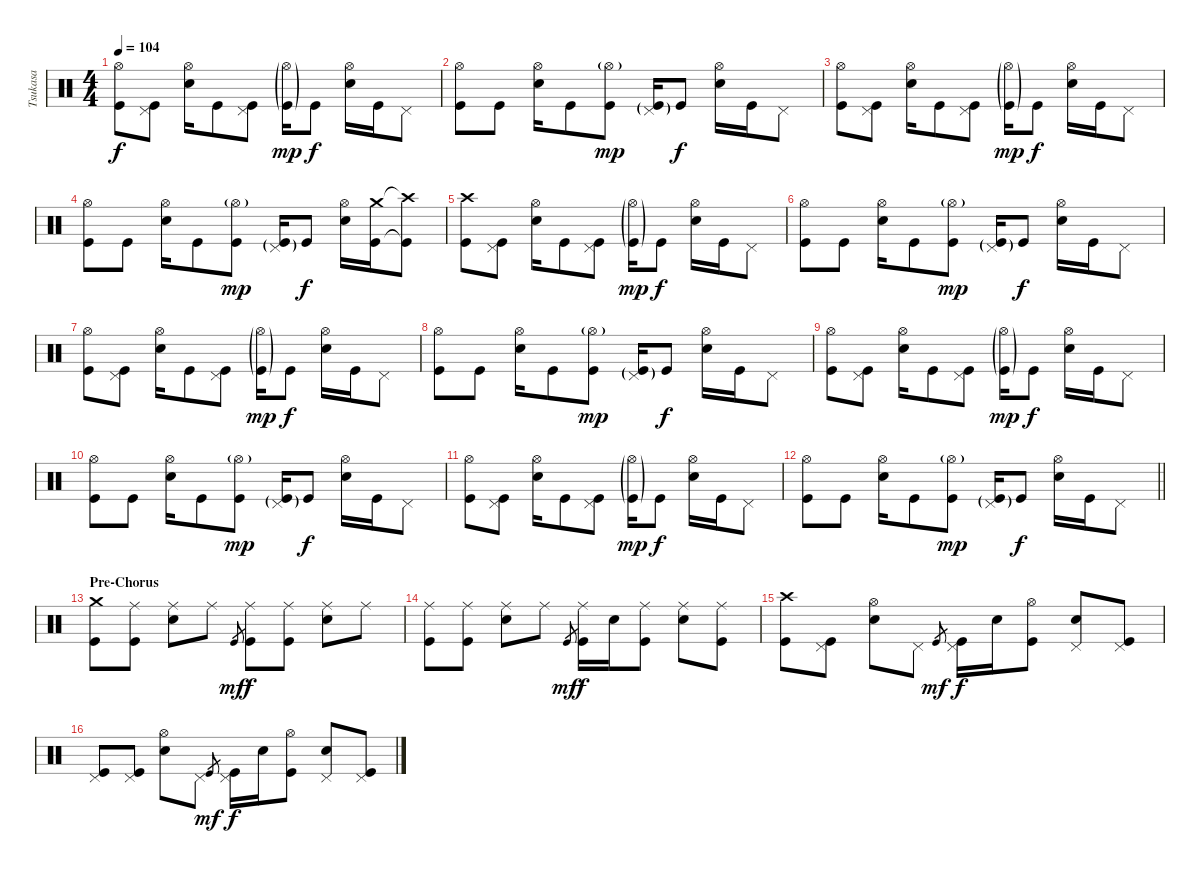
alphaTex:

\track ("Tsukasa" "Tsukasa") {instrument percussion}
\staff {score}
\articulation defaults
\ts (4 4)
\tempo 104
\clef neutral
\ks c
("Hi-Hat (open)" "Kick (hit)").8{dy f} ("Pedal Hi-Hat (hit)" "Kick (hit)").8 ("Hi-Hat (open)" "Snare (hit) 2").16 "Kick (hit)".8 ("Pedal Hi-Hat (hit)" "Kick (hit)").8 ("Hi-Hat (open)"{g} "Kick (hit)"{g}).16{dy mp} "Kick (hit)".8{dy f} ("Hi-Hat (open)" "Snare (hit) 2").16 "Kick (hit)".16 "Pedal Hi-Hat (hit)".8 |
("Hi-Hat (open)" "Kick (hit)").8 "Kick (hit)".8 ("Hi-Hat (open)" "Snare (hit) 2").16 "Kick (hit)".8 ("Hi-Hat (open)"{g} "Kick (hit)").8{dy mp} ("Pedal Hi-Hat (hit)"{g} "Kick (hit)"{g}).16 "Kick (hit)".8{dy f} ("Hi-Hat (open)" "Snare (hit) 2").16 "Kick (hit)".16 "Pedal Hi-Hat (hit)".8 |
("Hi-Hat (open)" "Kick (hit)").8 ("Pedal Hi-Hat (hit)" "Kick (hit)").8 ("Hi-Hat (open)" "Snare (hit) 2").16 "Kick (hit)".8 ("Pedal Hi-Hat (hit)" "Kick (hit)").8 ("Hi-Hat (open)"{g} "Kick (hit)"{g}).16{dy mp} "Kick (hit)".8{dy f} ("Hi-Hat (open)" "Snare (hit) 2").16 "Kick (hit)".16 "Pedal Hi-Hat (hit)".8 |
("Hi-Hat (open)" "Kick (hit)").8 "Kick (hit)".8 ("Hi-Hat (open)" "Snare (hit) 2").16 "Kick (hit)".8 ("Hi-Hat (open)"{g} "Kick (hit)").8{dy mp} ("Pedal Hi-Hat (hit)"{g} "Kick (hit)"{g}).16 "Kick (hit)".8{dy f} ("Hi-Hat (open)" "Snare (hit) 2").16 ("Crash medium (hit)" "Kick (hit)").16 ("Crash high (hit)"{t} "Kick (hit)"{t}).8 |
("Crash high (hit)" "Kick (hit)").8 ("Pedal Hi-Hat (hit)" "Kick (hit)").8 ("Hi-Hat (open)" "Snare (hit) 2").16 "Kick (hit)".8 ("Pedal Hi-Hat (hit)" "Kick (hit)").8 ("Hi-Hat (open)"{g} "Kick (hit)"{g}).16{dy mp} "Kick (hit)".8{dy f} ("Hi-Hat (open)" "Snare (hit) 2").16 "Kick (hit)".16 "Pedal Hi-Hat (hit)".8 |
("Hi-Hat (open)" "Kick (hit)").8 "Kick (hit)".8 ("Hi-Hat (open)" "Snare (hit) 2").16 "Kick (hit)".8 ("Hi-Hat (open)"{g} "Kick (hit)").8{dy mp} ("Pedal Hi-Hat (hit)"{g} "Kick (hit)"{g}).16 "Kick (hit)".8{dy f} ("Hi-Hat (open)" "Snare (hit) 2").16 "Kick (hit)".16 "Pedal Hi-Hat (hit)".8 |
("Hi-Hat (open)" "Kick (hit)").8 ("Pedal Hi-Hat (hit)" "Kick (hit)").8 ("Hi-Hat (open)" "Snare (hit) 2").16 "Kick (hit)".8 ("Pedal Hi-Hat (hit)" "Kick (hit)").8 ("Hi-Hat (open)"{g} "Kick (hit)"{g}).16{dy mp} "Kick (hit)".8{dy f} ("Hi-Hat (open)" "Snare (hit) 2").16 "Kick (hit)".16 "Pedal Hi-Hat (hit)".8 |
("Hi-Hat (open)" "Kick (hit)").8 "Kick (hit)".8 ("Hi-Hat (open)" "Snare (hit) 2").16 "Kick (hit)".8 ("Hi-Hat (open)"{g} "Kick (hit)").8{dy mp} ("Pedal Hi-Hat (hit)"{g} "Kick (hit)"{g}).16 "Kick (hit)".8{dy f} ("Hi-Hat (open)" "Snare (hit) 2").16 "Kick (hit)".16 "Pedal Hi-Hat (hit)".8 |
("Hi-Hat (open)" "Kick (hit)").8 ("Pedal Hi-Hat (hit)" "Kick (hit)").8 ("Hi-Hat (open)" "Snare (hit) 2").16 "Kick (hit)".8 ("Pedal Hi-Hat (hit)" "Kick (hit)").8 ("Hi-Hat (open)"{g} "Kick (hit)"{g}).16{dy mp} "Kick (hit)".8{dy f} ("Hi-Hat (open)" "Snare (hit) 2").16 "Kick (hit)".16 "Pedal Hi-Hat (hit)".8 |
("Hi-Hat (open)" "Kick (hit)").8 "Kick (hit)".8 ("Hi-Hat (open)" "Snare (hit) 2").16 "Kick (hit)".8 ("Hi-Hat (open)"{g} "Kick (hit)").8{dy mp} ("Pedal Hi-Hat (hit)"{g} "Kick (hit)"{g}).16 "Kick (hit)".8{dy f} ("Hi-Hat (open)" "Snare (hit) 2").16 "Kick (hit)".16 "Pedal Hi-Hat (hit)".8 |
("Hi-Hat (open)" "Kick (hit)").8 ("Pedal Hi-Hat (hit)" "Kick (hit)").8 ("Hi-Hat (open)" "Snare (hit) 2").16 "Kick (hit)".8 ("Pedal Hi-Hat (hit)" "Kick (hit)").8 ("Hi-Hat (open)"{g} "Kick (hit)"{g}).16{dy mp} "Kick (hit)".8{dy f} ("Hi-Hat (open)" "Snare (hit) 2").16 "Kick (hit)".16 "Pedal Hi-Hat (hit)".8 |
\barLineRight lightlight
("Hi-Hat (open)" "Kick (hit)").8 "Kick (hit)".8 ("Hi-Hat (open)" "Snare (hit) 2").16 "Kick (hit)".8 ("Hi-Hat (open)"{g} "Kick (hit)").8{dy mp} ("Pedal Hi-Hat (hit)"{g} "Kick (hit)"{g}).16 "Kick (hit)".8{dy f} ("Hi-Hat (open)" "Snare (hit) 2").16 "Kick (hit)".16 "Pedal Hi-Hat (hit)".8 |
\section ("" "Pre-Chorus")
("Crash medium (hit)" "Kick (hit)").8 ("Ride (middle)" "Kick (hit)").8 ("Ride (middle)" "Snare (hit) 2").8 "Ride (middle)".8 "Kick (hit)".8{gr dy mf} ("Ride (middle)" "Kick (hit)").8{dy f} ("Ride (middle)" "Kick (hit)").8 ("Ride (middle)" "Snare (hit) 2").8 "Ride (middle)".8 |
("Ride (middle)" "Kick (hit)").8 ("Ride (middle)" "Kick (hit)").8 ("Ride (middle)" "Snare (hit) 2").8 "Ride (middle)".8 "Kick (hit)".8{gr dy mf} ("Ride (middle)" "Kick (hit)").16{dy f} "Snare (hit) 2".16 ("Ride (middle)" "Kick (hit)").8 ("Ride (middle)" "Snare (hit) 2").8 ("Ride (middle)" "Kick (hit)").8 |
("Crash high (hit)" "Kick (hit)").8 ("Pedal Hi-Hat (hit)" "Kick (hit)").8 ("Hi-Hat (open)" "Snare (hit) 2").8 "Pedal Hi-Hat (hit)".8 "Kick (hit)".8{gr dy mf} ("Pedal Hi-Hat (hit)" "Kick (hit)").16{dy f} "Snare (hit) 2".16 ("Hi-Hat (open)" "Kick (hit)").8 ("Pedal Hi-Hat (hit)" "Snare (hit) 2").8 ("Pedal Hi-Hat (hit)" "Kick (hit)").8 |
("Pedal Hi-Hat (hit)" "Kick (hit)").8 ("Pedal Hi-Hat (hit)" "Kick (hit)").8 ("Hi-Hat (open)" "Snare (hit) 2").8 "Pedal Hi-Hat (hit)".8 "Kick (hit)".8{gr dy mf} ("Pedal Hi-Hat (hit)" "Kick (hit)").16{dy f} "Snare (hit) 2".16 ("Hi-Hat (open)" "Kick (hit)").8 ("Pedal Hi-Hat (hit)" "Snare (hit) 2").8 ("Pedal Hi-Hat (hit)" "Kick (hit)").8
